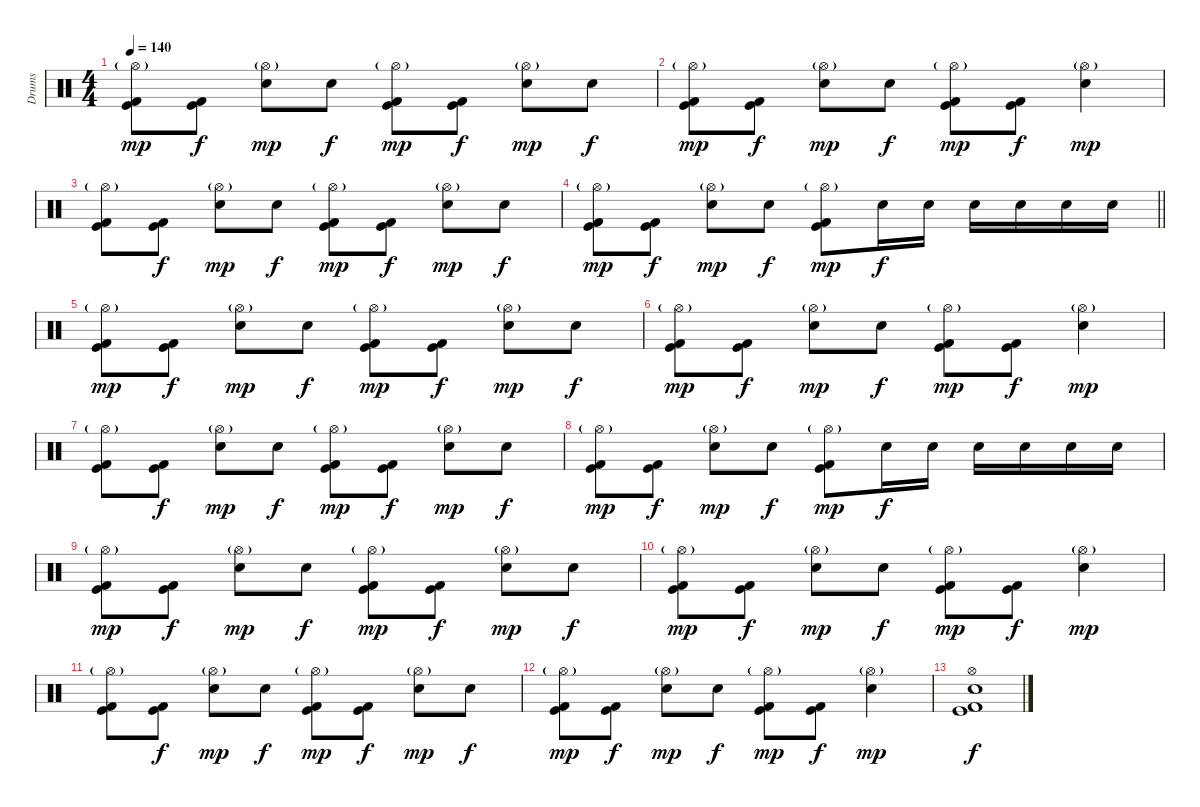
\track ("Drums" "Drums") {instrument percussion}
\staff {score}
\articulation defaults
\ts (4 4)
\tempo 140
\clef neutral
\ks c
("Hi-Hat (open)"{g} "Kick (hit) 2" "Kick (hit)").8{dy mp} ("Kick (hit) 2" "Kick (hit)").8{dy f} ("Hi-Hat (open)"{g} "Snare (hit) 2").8{dy mp} "Snare (hit) 2".8{dy f} ("Hi-Hat (open)"{g} "Kick (hit) 2" "Kick (hit)").8{dy mp} ("Kick (hit) 2" "Kick (hit)").8{dy f} ("Hi-Hat (open)"{g} "Snare (hit) 2").8{dy mp} "Snare (hit) 2".8{dy f} |
("Hi-Hat (open)"{g} "Kick (hit) 2" "Kick (hit)").8{dy mp} ("Kick (hit) 2" "Kick (hit)").8{dy f} ("Hi-Hat (open)"{g} "Snare (hit) 2").8{dy mp} "Snare (hit) 2".8{dy f} ("Hi-Hat (open)"{g} "Kick (hit) 2" "Kick (hit)").8{dy mp} ("Kick (hit) 2" "Kick (hit)").8{dy f} ("Hi-Hat (open)"{g} "Snare (hit) 2").4{dy mp} |
("Hi-Hat (open)"{g} "Kick (hit) 2" "Kick (hit)").8 ("Kick (hit) 2" "Kick (hit)").8{dy f} ("Hi-Hat (open)"{g} "Snare (hit) 2").8{dy mp} "Snare (hit) 2".8{dy f} ("Hi-Hat (open)"{g} "Kick (hit) 2" "Kick (hit)").8{dy mp} ("Kick (hit) 2" "Kick (hit)").8{dy f} ("Hi-Hat (open)"{g} "Snare (hit) 2").8{dy mp} "Snare (hit) 2".8{dy f} |
\barLineRight lightlight
("Hi-Hat (open)"{g} "Kick (hit) 2" "Kick (hit)").8{dy mp} ("Kick (hit) 2" "Kick (hit)").8{dy f} ("Hi-Hat (open)"{g} "Snare (hit) 2").8{dy mp} "Snare (hit) 2".8{dy f} ("Hi-Hat (open)"{g} "Kick (hit) 2" "Kick (hit)").8{dy mp} "Snare (hit) 2".16{dy f} "Snare (hit) 2".16 "Snare (hit) 2".16 "Snare (hit) 2".16 "Snare (hit) 2".16 "Snare (hit) 2".16 |
("Hi-Hat (open)"{g} "Kick (hit) 2" "Kick (hit)").8{dy mp} ("Kick (hit) 2" "Kick (hit)").8{dy f} ("Hi-Hat (open)"{g} "Snare (hit) 2").8{dy mp} "Snare (hit) 2".8{dy f} ("Hi-Hat (open)"{g} "Kick (hit) 2" "Kick (hit)").8{dy mp} ("Kick (hit) 2" "Kick (hit)").8{dy f} ("Hi-Hat (open)"{g} "Snare (hit) 2").8{dy mp} "Snare (hit) 2".8{dy f} |
("Hi-Hat (open)"{g} "Kick (hit) 2" "Kick (hit)").8{dy mp} ("Kick (hit) 2" "Kick (hit)").8{dy f} ("Hi-Hat (open)"{g} "Snare (hit) 2").8{dy mp} "Snare (hit) 2".8{dy f} ("Hi-Hat (open)"{g} "Kick (hit) 2" "Kick (hit)").8{dy mp} ("Kick (hit) 2" "Kick (hit)").8{dy f} ("Hi-Hat (open)"{g} "Snare (hit) 2").4{dy mp} |
("Hi-Hat (open)"{g} "Kick (hit) 2" "Kick (hit)").8 ("Kick (hit) 2" "Kick (hit)").8{dy f} ("Hi-Hat (open)"{g} "Snare (hit) 2").8{dy mp} "Snare (hit) 2".8{dy f} ("Hi-Hat (open)"{g} "Kick (hit) 2" "Kick (hit)").8{dy mp} ("Kick (hit) 2" "Kick (hit)").8{dy f} ("Hi-Hat (open)"{g} "Snare (hit) 2").8{dy mp} "Snare (hit) 2".8{dy f} |
("Hi-Hat (open)"{g} "Kick (hit) 2" "Kick (hit)").8{dy mp} ("Kick (hit) 2" "Kick (hit)").8{dy f} ("Hi-Hat (open)"{g} "Snare (hit) 2").8{dy mp} "Snare (hit) 2".8{dy f} ("Hi-Hat (open)"{g} "Kick (hit) 2" "Kick (hit)").8{dy mp} "Snare (hit) 2".16{dy f} "Snare (hit) 2".16 "Snare (hit) 2".16 "Snare (hit) 2".16 "Snare (hit) 2".16 "Snare (hit) 2".16 |
("Hi-Hat (open)"{g} "Kick (hit) 2" "Kick (hit)").8{dy mp} ("Kick (hit) 2" "Kick (hit)").8{dy f} ("Hi-Hat (open)"{g} "Snare (hit) 2").8{dy mp} "Snare (hit) 2".8{dy f} ("Hi-Hat (open)"{g} "Kick (hit) 2" "Kick (hit)").8{dy mp} ("Kick (hit) 2" "Kick (hit)").8{dy f} ("Hi-Hat (open)"{g} "Snare (hit) 2").8{dy mp} "Snare (hit) 2".8{dy f} |
("Hi-Hat (open)"{g} "Kick (hit) 2" "Kick (hit)").8{dy mp} ("Kick (hit) 2" "Kick (hit)").8{dy f} ("Hi-Hat (open)"{g} "Snare (hit) 2").8{dy mp} "Snare (hit) 2".8{dy f} ("Hi-Hat (open)"{g} "Kick (hit) 2" "Kick (hit)").8{dy mp} ("Kick (hit) 2" "Kick (hit)").8{dy f} ("Hi-Hat (open)"{g} "Snare (hit) 2").4{dy mp} |
("Hi-Hat (open)"{g} "Kick (hit) 2" "Kick (hit)").8 ("Kick (hit) 2" "Kick (hit)").8{dy f} ("Hi-Hat (open)"{g} "Snare (hit) 2").8{dy mp} "Snare (hit) 2".8{dy f} ("Hi-Hat (open)"{g} "Kick (hit) 2" "Kick (hit)").8{dy mp} ("Kick (hit) 2" "Kick (hit)").8{dy f} ("Hi-Hat (open)"{g} "Snare (hit) 2").8{dy mp} "Snare (hit) 2".8{dy f} |
("Hi-Hat (open)"{g} "Kick (hit) 2" "Kick (hit)").8{dy mp} ("Kick (hit) 2" "Kick (hit)").8{dy f} ("Hi-Hat (open)"{g} "Snare (hit) 2").8{dy mp} "Snare (hit) 2".8{dy f} ("Hi-Hat (open)"{g} "Kick (hit) 2" "Kick (hit)").8{dy mp} ("Kick (hit) 2" "Kick (hit)").8{dy f} ("Hi-Hat (open)"{g} "Snare (hit) 2").4{dy mp} |
("Hi-Hat (open)" "Snare (hit) 2" "Kick (hit) 2" "Kick (hit)").1{dy f}
